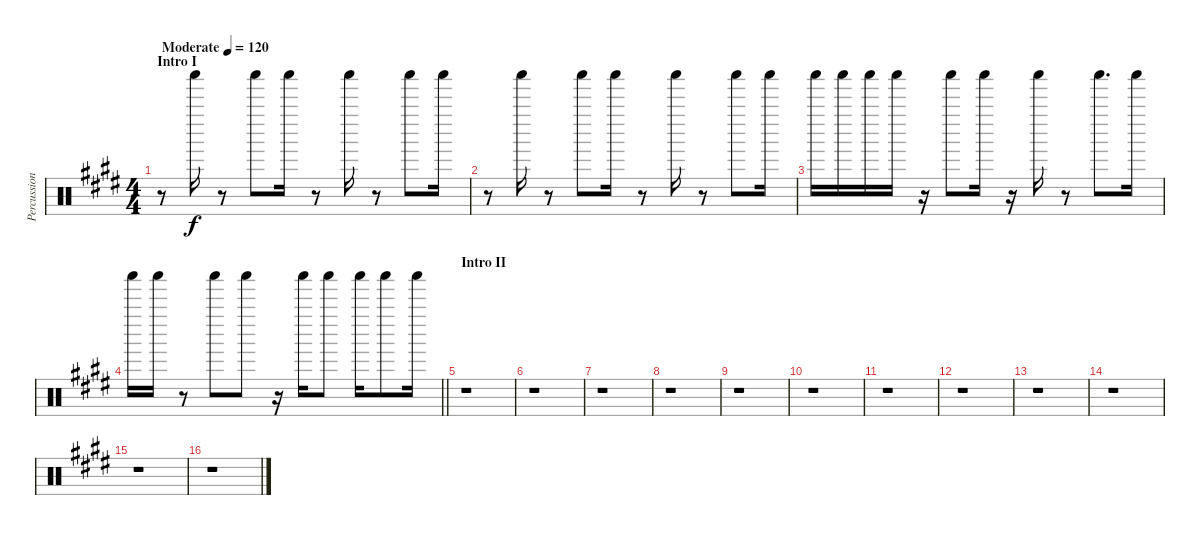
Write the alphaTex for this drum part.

\track ("Percussion II" "Percussion") {instrument percussion}
\staff {score}
\articulation defaults
\ts (4 4)
\section ("" "Intro I")
\tempo (120 "Moderate")
\clef neutral
\ks e
r.8{dy f} "Shaker (hit)".16 r.8 "Shaker (hit)".8 "Shaker (hit)".16 r.8 "Shaker (hit)".16 r.8 "Shaker (hit)".8 "Shaker (hit)".16 |
r.8 "Shaker (hit)".16 r.8 "Shaker (hit)".8 "Shaker (hit)".16 r.8 "Shaker (hit)".16 r.8 "Shaker (hit)".8 "Shaker (hit)".16 |
"Shaker (hit)".16 "Shaker (hit)".16 "Shaker (hit)".16 "Shaker (hit)".16 r.16 "Shaker (hit)".8 "Shaker (hit)".16 r.16 "Shaker (hit)".16 r.8 "Shaker (hit)".8{d} "Shaker (hit)".16 |
\barLineRight lightlight "Shaker (hit)".16 "Shaker (hit)".16
r.8 "Shaker (hit)".8 "Shaker (hit)".8 r.16 "Shaker (hit)".16 "Shaker (hit)".8 "Shaker (hit)".16 "Shaker (hit)".8 "Shaker (hit)".16 |
\section ("" "Intro II")
r.1 |
r.1 |
r.1 |
r.1 |
r.1 |
r.1 |
r.1 |
r.1 |
r.1 |
r.1 |
r.1 |
r.1
